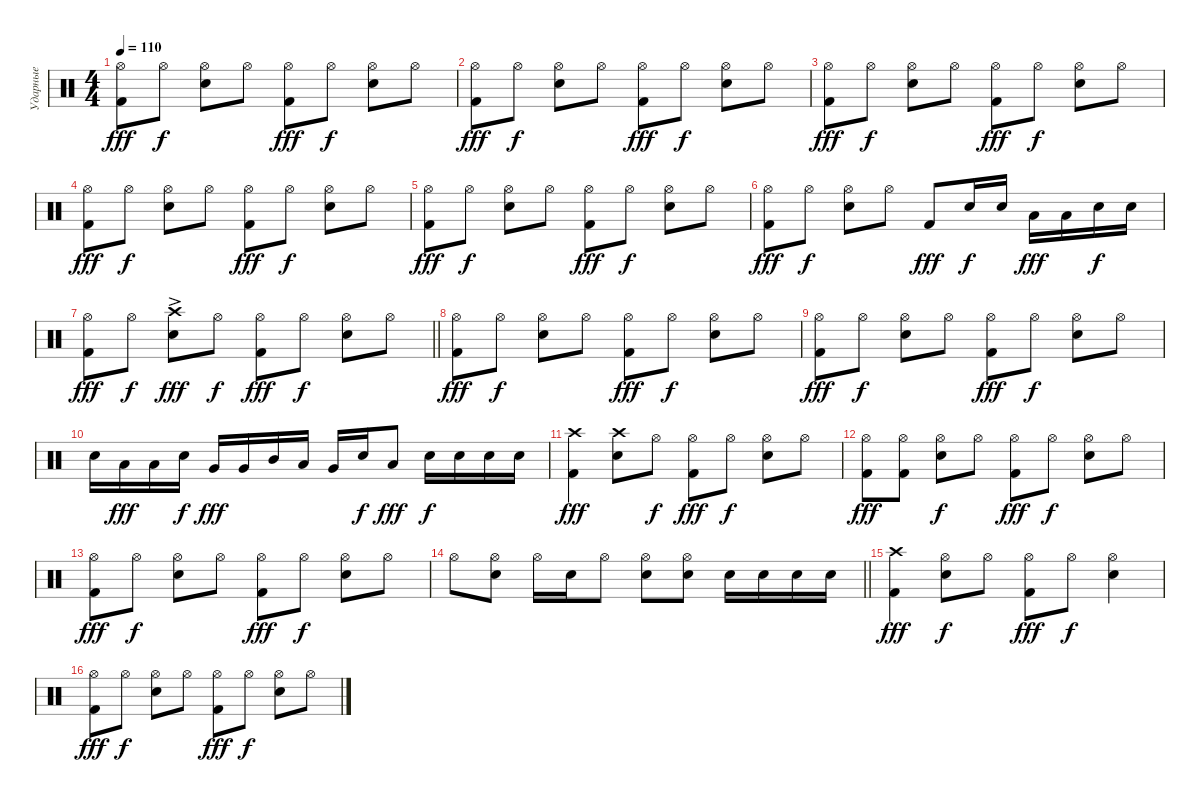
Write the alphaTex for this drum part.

\track ("Ударные" "Ударные") {instrument percussion}
\staff
\articulation defaults
\ts (4 4)
\tempo 110
\clef neutral
\ks c
("Kick (hit) 2" "Hi-Hat (open)").8{dy fff} "Hi-Hat (open)".8{dy f} ("Snare (hit) 2" "Hi-Hat (open)").8 "Hi-Hat (open)".8 ("Kick (hit) 2" "Hi-Hat (open)").8{dy fff} "Hi-Hat (open)".8{dy f} ("Snare (hit) 2" "Hi-Hat (open)").8 "Hi-Hat (open)".8 |
("Kick (hit) 2" "Hi-Hat (open)").8{dy fff} "Hi-Hat (open)".8{dy f} ("Snare (hit) 2" "Hi-Hat (open)").8 "Hi-Hat (open)".8 ("Kick (hit) 2" "Hi-Hat (open)").8{dy fff} "Hi-Hat (open)".8{dy f} ("Snare (hit) 2" "Hi-Hat (open)").8 "Hi-Hat (open)".8 |
("Kick (hit) 2" "Hi-Hat (open)").8{dy fff} "Hi-Hat (open)".8{dy f} ("Snare (hit) 2" "Hi-Hat (open)").8 "Hi-Hat (open)".8 ("Kick (hit) 2" "Hi-Hat (open)").8{dy fff} "Hi-Hat (open)".8{dy f} ("Snare (hit) 2" "Hi-Hat (open)").8 "Hi-Hat (open)".8 |
("Kick (hit) 2" "Hi-Hat (open)").8{dy fff} "Hi-Hat (open)".8{dy f} ("Snare (hit) 2" "Hi-Hat (open)").8 "Hi-Hat (open)".8 ("Kick (hit) 2" "Hi-Hat (open)").8{dy fff} "Hi-Hat (open)".8{dy f} ("Snare (hit) 2" "Hi-Hat (open)").8 "Hi-Hat (open)".8 |
("Kick (hit) 2" "Hi-Hat (open)").8{dy fff} "Hi-Hat (open)".8{dy f} ("Snare (hit) 2" "Hi-Hat (open)").8 "Hi-Hat (open)".8 ("Kick (hit) 2" "Hi-Hat (open)").8{dy fff} "Hi-Hat (open)".8{dy f} ("Snare (hit) 2" "Hi-Hat (open)").8 "Hi-Hat (open)".8 |
("Kick (hit) 2" "Hi-Hat (open)").8{dy fff} "Hi-Hat (open)".8{dy f} ("Snare (hit) 2" "Hi-Hat (open)").8 "Hi-Hat (open)".8 "Kick (hit) 2".8{dy fff} "Snare (hit) 2".16{dy f} "Snare (hit) 2".16 "Low Tom (hit)".16{dy fff} "Low Tom (hit)".16 "Snare (hit) 2".16{dy f} "Snare (hit) 2".16 |
\barLineRight lightlight
("Kick (hit) 2" "Hi-Hat (open)").8{dy fff} "Hi-Hat (open)".8{dy f} ("Snare (hit) 2" "Crash high (hit)"{ac}).8{dy fff} "Hi-Hat (open)".8{dy f} ("Kick (hit) 2" "Hi-Hat (open)").8{dy fff} "Hi-Hat (open)".8{dy f} ("Snare (hit) 2" "Hi-Hat (open)").8 "Hi-Hat (open)".8 |
("Kick (hit) 2" "Hi-Hat (open)").8{dy fff} "Hi-Hat (open)".8{dy f} ("Snare (hit) 2" "Hi-Hat (open)").8 "Hi-Hat (open)".8 ("Kick (hit) 2" "Hi-Hat (open)").8{dy fff} "Hi-Hat (open)".8{dy f} ("Snare (hit) 2" "Hi-Hat (open)").8 "Hi-Hat (open)".8 |
("Kick (hit) 2" "Hi-Hat (open)").8{dy fff} "Hi-Hat (open)".8{dy f} ("Snare (hit) 2" "Hi-Hat (open)").8 "Hi-Hat (open)".8 ("Kick (hit) 2" "Hi-Hat (open)").8{dy fff} "Hi-Hat (open)".8{dy f} ("Snare (hit) 2" "Hi-Hat (open)").8 "Hi-Hat (open)".8 |
"Snare (hit) 2".16 "Low Tom (hit)".16{dy fff} "Low Tom (hit)".16 "Snare (hit) 2".16{dy f} "Very Low Tom (hit)".16{dy fff} "Very Low Tom (hit)".16 "Mid Tom (hit)".16 "Low Tom (hit)".16 "Very Low Tom (hit)".16 "Snare (hit) 2".16{dy f} "Low Tom (hit)".8{dy fff} "Snare (hit) 2".16{dy f} "Snare (hit) 2".16 "Snare (hit) 2".16 "Snare (hit) 2".16 |
("Kick (hit) 2" "Crash high (hit)").4{dy fff} ("Snare (hit) 2" "Crash high (hit)").8 "Hi-Hat (open)".8{dy f} ("Kick (hit) 2" "Hi-Hat (open)").8{dy fff} "Hi-Hat (open)".8{dy f} ("Snare (hit) 2" "Hi-Hat (open)").8 "Hi-Hat (open)".8 |
("Kick (hit) 2" "Hi-Hat (open)").8{dy fff} ("Kick (hit) 2" "Hi-Hat (open)").8 ("Snare (hit) 2" "Hi-Hat (open)").8{dy f} "Hi-Hat (open)".8 ("Kick (hit) 2" "Hi-Hat (open)").8{dy fff} "Hi-Hat (open)".8{dy f} ("Snare (hit) 2" "Hi-Hat (open)").8 "Hi-Hat (open)".8 |
("Kick (hit) 2" "Hi-Hat (open)").8{dy fff} "Hi-Hat (open)".8{dy f} ("Snare (hit) 2" "Hi-Hat (open)").8 "Hi-Hat (open)".8 ("Kick (hit) 2" "Hi-Hat (open)").8{dy fff} "Hi-Hat (open)".8{dy f} ("Snare (hit) 2" "Hi-Hat (open)").8 "Hi-Hat (open)".8 |
\barLineRight lightlight "Hi-Hat (open)".8
("Snare (hit) 2" "Hi-Hat (open)").8 "Hi-Hat (open)".16 "Snare (hit) 2".16 "Hi-Hat (open)".8 ("Snare (hit) 2" "Hi-Hat (open)").8 ("Snare (hit) 2" "Hi-Hat (open)").8 "Snare (hit) 2".16 "Snare (hit) 2".16 "Snare (hit) 2".16 "Snare (hit) 2".16 |
("Kick (hit) 2" "Crash high (hit)").4{dy fff} ("Snare (hit) 2" "Hi-Hat (open)").8{dy f} "Hi-Hat (open)".8 ("Kick (hit) 2" "Hi-Hat (open)").8{dy fff} "Hi-Hat (open)".8{dy f} ("Snare (hit) 2" "Hi-Hat (open)").4 |
("Kick (hit) 2" "Hi-Hat (open)").8{dy fff} "Hi-Hat (open)".8{dy f} ("Snare (hit) 2" "Hi-Hat (open)").8 "Hi-Hat (open)".8 ("Kick (hit) 2" "Hi-Hat (open)").8{dy fff} "Hi-Hat (open)".8{dy f} ("Snare (hit) 2" "Hi-Hat (open)").8 "Hi-Hat (open)".8
